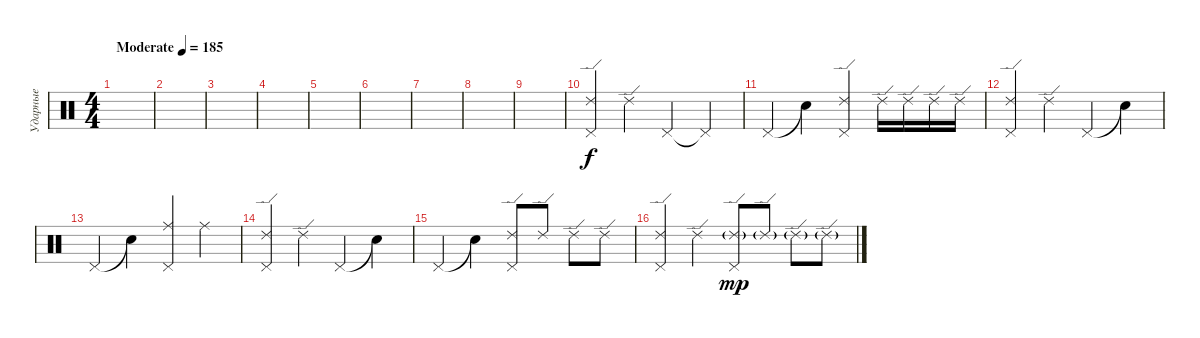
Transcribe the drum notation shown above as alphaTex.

\track ("Ударные" "Ударные") {instrument percussion}
\staff {score}
\articulation defaults
\ts (4 4)
\tempo (185 "Moderate")
\clef neutral
\ks c
|
|
|
|
|
|
|
|
|
("Pedal Hi-Hat (hit)" "Ride (edge) 2").4 "Ride (edge) 2".4 "Pedal Hi-Hat (hit)".4 "Pedal Hi-Hat (hit)"{t}.4 |
"Pedal Hi-Hat (hit)".4 "Snare (hit)"{t}.4 ("Pedal Hi-Hat (hit)" "Ride (edge) 2").4 "Ride (edge) 2".16 "Ride (edge) 2".16 "Ride (edge) 2".16 "Ride (edge) 2".16 |
("Pedal Hi-Hat (hit)" "Ride (edge) 2").4 "Ride (edge) 2".4 "Pedal Hi-Hat (hit)".4 "Snare (hit)"{t}.4 |
"Pedal Hi-Hat (hit)".4 "Snare (hit)"{t}.4 ("Pedal Hi-Hat (hit)" "Ride (middle)").4 "Ride (middle)".4 |
("Pedal Hi-Hat (hit)" "Ride (edge) 2").4 "Ride (edge) 2".4 "Pedal Hi-Hat (hit)".4 "Snare (hit)"{t}.4 |
"Pedal Hi-Hat (hit)".4 "Snare (hit)"{t}.4 ("Pedal Hi-Hat (hit)" "Ride (edge) 2").8 "Ride (edge) 2".8 "Ride (edge) 2".8 "Ride (edge) 2".8 |
("Pedal Hi-Hat (hit)" "Ride (edge) 2").4 "Ride (edge) 2".4 ("Pedal Hi-Hat (hit)" "Ride (edge) 2"{g}).8{dy mp} "Ride (edge) 2"{g}.8 "Ride (edge) 2"{g}.8 "Ride (edge) 2"{g}.8
